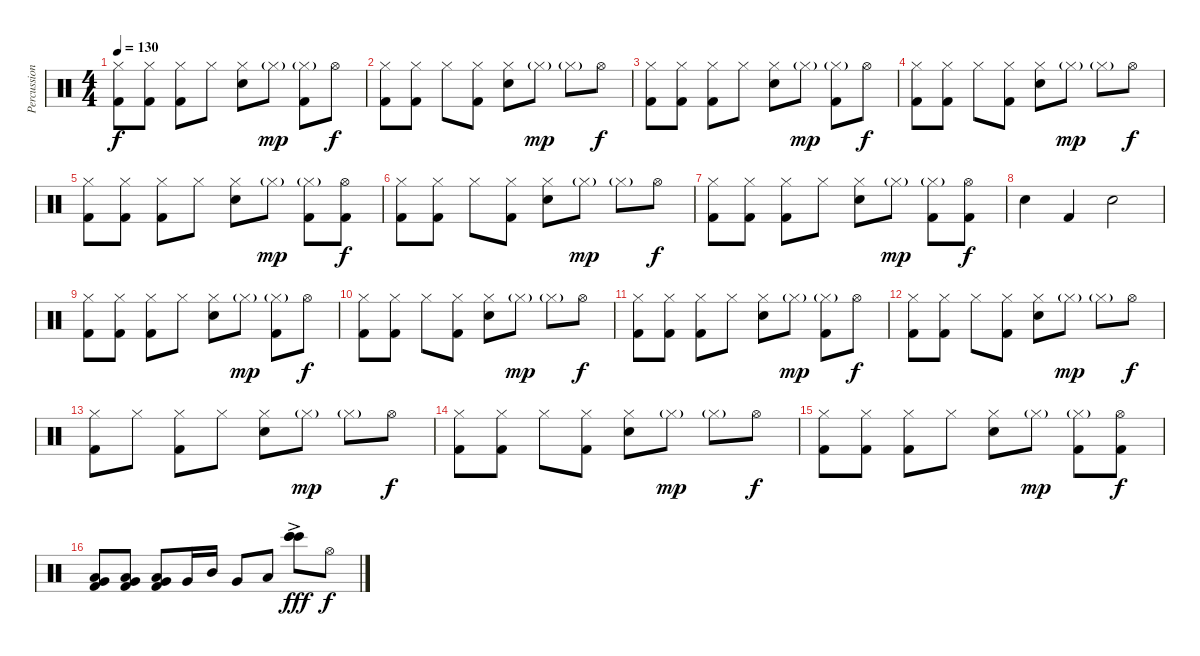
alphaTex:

\track ("Percussion" "Percussion") {instrument percussion}
\staff {score}
\articulation defaults
\ts (4 4)
\tempo 130
\clef neutral
\ks c
("Hi-Hat (closed)" "Kick (hit) 2").8{dy f} ("Hi-Hat (closed)" "Kick (hit) 2").8 ("Hi-Hat (closed)" "Kick (hit) 2").8 "Hi-Hat (closed)".8 ("Hi-Hat (closed)" "Snare (hit) 2").8 "Hi-Hat (closed)"{g}.8{dy mp} ("Hi-Hat (closed)"{g} "Kick (hit) 2").8 "Hi-Hat (open)".8{dy f} |
("Hi-Hat (closed)" "Kick (hit) 2").8 ("Hi-Hat (closed)" "Kick (hit) 2").8 "Hi-Hat (closed)".8 ("Hi-Hat (closed)" "Kick (hit) 2").8 ("Hi-Hat (closed)" "Snare (hit) 2").8 "Hi-Hat (closed)"{g}.8{dy mp} "Hi-Hat (closed)"{g}.8 "Hi-Hat (open)".8{dy f} |
("Hi-Hat (closed)" "Kick (hit) 2").8 ("Hi-Hat (closed)" "Kick (hit) 2").8 ("Hi-Hat (closed)" "Kick (hit) 2").8 "Hi-Hat (closed)".8 ("Hi-Hat (closed)" "Snare (hit) 2").8 "Hi-Hat (closed)"{g}.8{dy mp} ("Hi-Hat (closed)"{g} "Kick (hit) 2").8 "Hi-Hat (open)".8{dy f} |
("Hi-Hat (closed)" "Kick (hit) 2").8 ("Hi-Hat (closed)" "Kick (hit) 2").8 "Hi-Hat (closed)".8 ("Hi-Hat (closed)" "Kick (hit) 2").8 ("Hi-Hat (closed)" "Snare (hit) 2").8 "Hi-Hat (closed)"{g}.8{dy mp} "Hi-Hat (closed)"{g}.8 "Hi-Hat (open)".8{dy f} |
("Hi-Hat (closed)" "Kick (hit) 2").8 ("Hi-Hat (closed)" "Kick (hit) 2").8 ("Hi-Hat (closed)" "Kick (hit) 2").8 "Hi-Hat (closed)".8 ("Hi-Hat (closed)" "Snare (hit) 2").8 "Hi-Hat (closed)"{g}.8{dy mp} ("Hi-Hat (closed)"{g} "Kick (hit) 2").8 ("Hi-Hat (open)" "Kick (hit) 2").8{dy f} |
("Hi-Hat (closed)" "Kick (hit) 2").8 ("Hi-Hat (closed)" "Kick (hit) 2").8 "Hi-Hat (closed)".8 ("Hi-Hat (closed)" "Kick (hit) 2").8 ("Hi-Hat (closed)" "Snare (hit) 2").8 "Hi-Hat (closed)"{g}.8{dy mp} "Hi-Hat (closed)"{g}.8 "Hi-Hat (open)".8{dy f} |
("Hi-Hat (closed)" "Kick (hit) 2").8 ("Hi-Hat (closed)" "Kick (hit) 2").8 ("Hi-Hat (closed)" "Kick (hit) 2").8 "Hi-Hat (closed)".8 ("Hi-Hat (closed)" "Snare (hit) 2").8 "Hi-Hat (closed)"{g}.8{dy mp} ("Hi-Hat (closed)"{g} "Kick (hit) 2").8 ("Hi-Hat (open)" "Kick (hit) 2").8{dy f} |
"Snare (hit) 2".4 "Kick (hit) 2".4 "Snare (hit) 2".2 |
("Hi-Hat (closed)" "Kick (hit) 2").8 ("Hi-Hat (closed)" "Kick (hit) 2").8 ("Hi-Hat (closed)" "Kick (hit) 2").8 "Hi-Hat (closed)".8 ("Hi-Hat (closed)" "Snare (hit) 2").8 "Hi-Hat (closed)"{g}.8{dy mp} ("Hi-Hat (closed)"{g} "Kick (hit) 2").8 "Hi-Hat (open)".8{dy f} |
("Hi-Hat (closed)" "Kick (hit) 2").8 ("Hi-Hat (closed)" "Kick (hit) 2").8 "Hi-Hat (closed)".8 ("Hi-Hat (closed)" "Kick (hit) 2").8 ("Hi-Hat (closed)" "Snare (hit) 2").8 "Hi-Hat (closed)"{g}.8{dy mp} "Hi-Hat (closed)"{g}.8 "Hi-Hat (open)".8{dy f} |
("Hi-Hat (closed)" "Kick (hit) 2").8 ("Hi-Hat (closed)" "Kick (hit) 2").8 ("Hi-Hat (closed)" "Kick (hit) 2").8 "Hi-Hat (closed)".8 ("Hi-Hat (closed)" "Snare (hit) 2").8 "Hi-Hat (closed)"{g}.8{dy mp} ("Hi-Hat (closed)"{g} "Kick (hit) 2").8 "Hi-Hat (open)".8{dy f} |
("Hi-Hat (closed)" "Kick (hit) 2").8 ("Hi-Hat (closed)" "Kick (hit) 2").8 "Hi-Hat (closed)".8 ("Hi-Hat (closed)" "Kick (hit) 2").8 ("Hi-Hat (closed)" "Snare (hit) 2").8 "Hi-Hat (closed)"{g}.8{dy mp} "Hi-Hat (closed)"{g}.8 "Hi-Hat (open)".8{dy f} |
("Hi-Hat (closed)" "Kick (hit) 2").8 "Hi-Hat (closed)".8 ("Hi-Hat (closed)" "Kick (hit) 2").8 "Hi-Hat (closed)".8 ("Hi-Hat (closed)" "Snare (hit) 2").8 "Hi-Hat (closed)"{g}.8{dy mp} "Hi-Hat (closed)"{g}.8 "Hi-Hat (open)".8{dy f} |
("Hi-Hat (closed)" "Kick (hit) 2").8 ("Hi-Hat (closed)" "Kick (hit) 2").8 "Hi-Hat (closed)".8 ("Hi-Hat (closed)" "Kick (hit) 2").8 ("Hi-Hat (closed)" "Snare (hit) 2").8 "Hi-Hat (closed)"{g}.8{dy mp} "Hi-Hat (closed)"{g}.8 "Hi-Hat (open)".8{dy f} |
("Hi-Hat (closed)" "Kick (hit) 2").8 ("Hi-Hat (closed)" "Kick (hit) 2").8 ("Hi-Hat (closed)" "Kick (hit) 2").8 "Hi-Hat (closed)".8 ("Hi-Hat (closed)" "Snare (hit) 2").8 "Hi-Hat (closed)"{g}.8{dy mp} ("Hi-Hat (closed)"{g} "Kick (hit) 2").8 ("Hi-Hat (open)" "Kick (hit) 2").8{dy f} |
("Low Floor Tom (hit)" "Very Low Tom (hit)" "Kick (hit) 2").8 ("Low Floor Tom (hit)" "Very Low Tom (hit)" "Kick (hit) 2").8 ("Low Floor Tom (hit)" "Very Low Tom (hit)" "Kick (hit) 2").8 "Very Low Tom (hit)".16 "Mid Tom (hit)".16 "Very Low Tom (hit)".8 "Low Tom (hit)".8 ("Bongo High (hit)"{ac} "Bongo High (hit)"{ac} "Bongo High (hit)"{ac}).8{dy fff} "Hi-Hat (open)".8{dy f}
